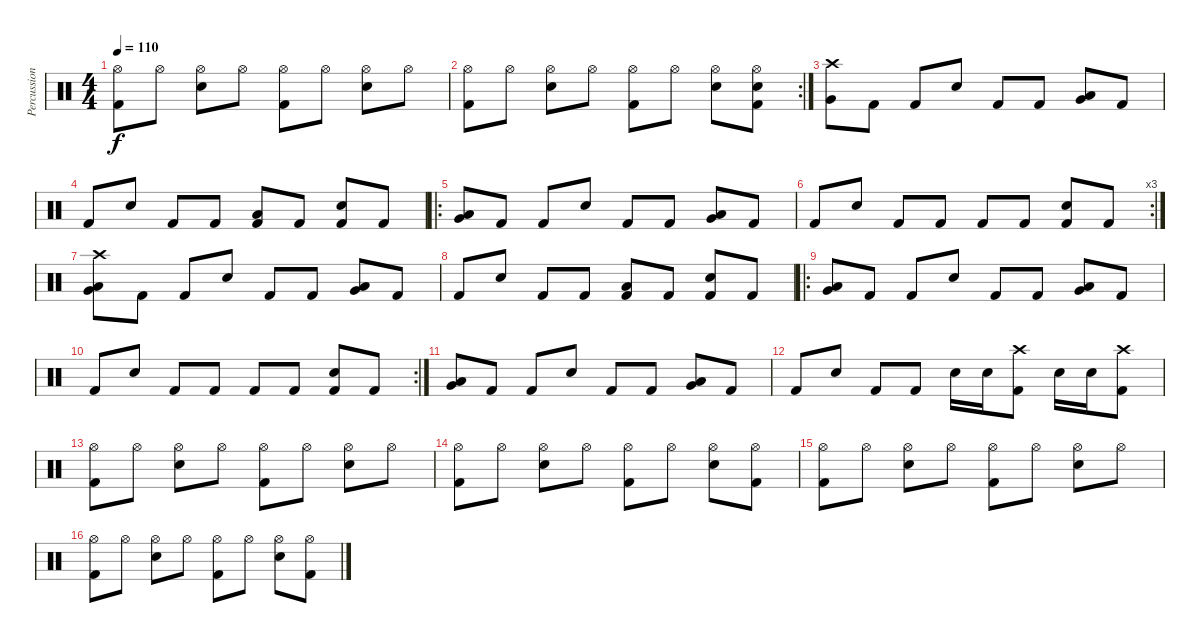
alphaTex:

\track ("Percussion" "Percussion") {instrument percussion}
\staff {score}
\articulation defaults
\ts (4 4)
\tempo 110
\clef neutral
\ks c
("Hi-Hat (open)" "Kick (hit) 2").8{dy f} "Hi-Hat (open)".8 ("Hi-Hat (open)" "Snare (hit) 2").8 "Hi-Hat (open)".8 ("Hi-Hat (open)" "Kick (hit) 2").8 "Hi-Hat (open)".8 ("Hi-Hat (open)" "Snare (hit) 2").8 "Hi-Hat (open)".8 |
\rc 2
("Hi-Hat (open)" "Kick (hit) 2").8 "Hi-Hat (open)".8 ("Hi-Hat (open)" "Snare (hit) 2").8 "Hi-Hat (open)".8 ("Hi-Hat (open)" "Kick (hit) 2").8 "Hi-Hat (open)".8 ("Hi-Hat (open)" "Snare (hit) 2").8 ("Hi-Hat (open)" "Snare (hit) 2" "Kick (hit) 2").8 |
("Crash high (hit)" "Very Low Tom (hit)").8 "Kick (hit) 2".8 "Kick (hit) 2".8 "Snare (hit) 2".8 "Kick (hit) 2".8 "Kick (hit) 2".8 ("Low Tom (hit)" "Very Low Tom (hit)").8 "Kick (hit) 2".8 |
"Kick (hit) 2".8 "Snare (hit) 2".8 "Kick (hit) 2".8 "Kick (hit) 2".8 ("Low Floor Tom (hit)" "Kick (hit) 2").8 "Kick (hit) 2".8 ("Snare (hit) 2" "Kick (hit) 2").8 "Kick (hit) 2".8 |
\ro
("Low Tom (hit)" "Very Low Tom (hit)").8 "Kick (hit) 2".8 "Kick (hit) 2".8 "Snare (hit) 2".8 "Kick (hit) 2".8 "Kick (hit) 2".8 ("Low Tom (hit)" "Very Low Tom (hit)").8 "Kick (hit) 2".8 |
\rc 3 "Kick (hit) 2".8 "Snare (hit) 2".8 "Kick (hit) 2".8 "Kick (hit) 2".8 "Kick (hit) 2".8 "Kick (hit) 2".8
("Snare (hit) 2" "Kick (hit) 2").8 "Kick (hit) 2".8 |
("Crash high (hit)" "Low Tom (hit)" "Very Low Tom (hit)").8 "Kick (hit) 2".8 "Kick (hit) 2".8 "Snare (hit) 2".8 "Kick (hit) 2".8 "Kick (hit) 2".8 ("Low Tom (hit)" "Very Low Tom (hit)").8 "Kick (hit) 2".8 |
"Kick (hit) 2".8 "Snare (hit) 2".8 "Kick (hit) 2".8 "Kick (hit) 2".8 ("Low Floor Tom (hit)" "Kick (hit) 2").8 "Kick (hit) 2".8 ("Snare (hit) 2" "Kick (hit) 2").8 "Kick (hit) 2".8 |
\ro
("Low Tom (hit)" "Very Low Tom (hit)").8 "Kick (hit) 2".8 "Kick (hit) 2".8 "Snare (hit) 2".8 "Kick (hit) 2".8 "Kick (hit) 2".8 ("Low Tom (hit)" "Very Low Tom (hit)").8 "Kick (hit) 2".8 |
\rc 2 "Kick (hit) 2".8 "Snare (hit) 2".8 "Kick (hit) 2".8 "Kick (hit) 2".8 "Kick (hit) 2".8 "Kick (hit) 2".8
("Snare (hit) 2" "Kick (hit) 2").8 "Kick (hit) 2".8 |
("Low Tom (hit)" "Very Low Tom (hit)").8 "Kick (hit) 2".8 "Kick (hit) 2".8 "Snare (hit) 2".8 "Kick (hit) 2".8 "Kick (hit) 2".8 ("Low Tom (hit)" "Very Low Tom (hit)").8 "Kick (hit) 2".8 |
"Kick (hit) 2".8 "Snare (hit) 2".8 "Kick (hit) 2".8 "Kick (hit) 2".8 "Snare (hit) 2".16 "Snare (hit) 2".16 ("Crash high (hit)" "Kick (hit) 2").8 "Snare (hit) 2".16 "Snare (hit) 2".16 ("Crash high (hit)" "Kick (hit) 2").8 |
("Hi-Hat (open)" "Kick (hit) 2").8 "Hi-Hat (open)".8 ("Hi-Hat (open)" "Snare (hit) 2").8 "Hi-Hat (open)".8 ("Hi-Hat (open)" "Kick (hit) 2").8 "Hi-Hat (open)".8 ("Hi-Hat (open)" "Snare (hit) 2").8 "Hi-Hat (open)".8 |
("Hi-Hat (open)" "Kick (hit) 2").8 "Hi-Hat (open)".8 ("Hi-Hat (open)" "Snare (hit) 2").8 "Hi-Hat (open)".8 ("Hi-Hat (open)" "Kick (hit) 2").8 "Hi-Hat (open)".8 ("Hi-Hat (open)" "Snare (hit) 2").8 ("Hi-Hat (open)" "Kick (hit) 2").8 |
("Hi-Hat (open)" "Kick (hit) 2").8 "Hi-Hat (open)".8 ("Hi-Hat (open)" "Snare (hit) 2").8 "Hi-Hat (open)".8 ("Hi-Hat (open)" "Kick (hit) 2").8 "Hi-Hat (open)".8 ("Hi-Hat (open)" "Snare (hit) 2").8 "Hi-Hat (open)".8 |
("Hi-Hat (open)" "Kick (hit) 2").8 "Hi-Hat (open)".8 ("Hi-Hat (open)" "Snare (hit) 2").8 "Hi-Hat (open)".8 ("Hi-Hat (open)" "Kick (hit) 2").8 "Hi-Hat (open)".8 ("Hi-Hat (open)" "Snare (hit) 2").8 ("Hi-Hat (open)" "Kick (hit) 2").8
